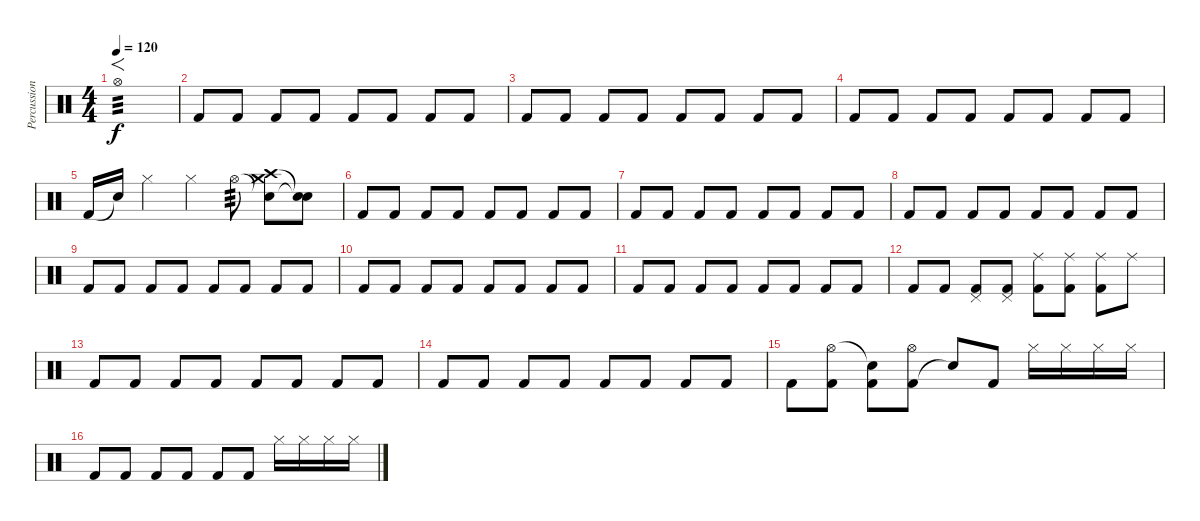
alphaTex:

\track ("Percussioni" "Percussion") {instrument percussion}
\staff {score}
\articulation defaults
\ts (4 4)
\tempo 120
\clef neutral
\ks c "Hi-Hat (open)".1{f tp 3 dy f}
|
"Kick (hit) 2".8 "Kick (hit) 2".8 "Kick (hit) 2".8 "Kick (hit) 2".8 "Kick (hit) 2".8 "Kick (hit) 2".8 "Kick (hit) 2".8 "Kick (hit) 2".8 |
"Kick (hit) 2".8 "Kick (hit) 2".8 "Kick (hit) 2".8 "Kick (hit) 2".8 "Kick (hit) 2".8 "Kick (hit) 2".8 "Kick (hit) 2".8 "Kick (hit) 2".8 |
"Kick (hit) 2".8 "Kick (hit) 2".8 "Kick (hit) 2".8 "Kick (hit) 2".8 "Kick (hit) 2".8 "Kick (hit) 2".8 "Kick (hit) 2".8 "Kick (hit) 2".8 |
"Kick (hit) 2".16 "Snare (hit)"{t}.16 "Hi-Hat (closed)".4 "Hi-Hat (closed)".4 "Hi-Hat (open)".8{tp 3} ("Snare (hit)"{t} "Crash high (hit)" "Crash medium (hit)").8 ("Snare (hit)"{t} "Snare (hit)"{t}).8 |
"Kick (hit) 2".8 "Kick (hit) 2".8 "Kick (hit) 2".8 "Kick (hit) 2".8 "Kick (hit) 2".8 "Kick (hit) 2".8 "Kick (hit) 2".8 "Kick (hit) 2".8 |
"Kick (hit) 2".8 "Kick (hit) 2".8 "Kick (hit) 2".8 "Kick (hit) 2".8 "Kick (hit) 2".8 "Kick (hit) 2".8 "Kick (hit) 2".8 "Kick (hit) 2".8 |
"Kick (hit) 2".8 "Kick (hit) 2".8 "Kick (hit) 2".8 "Kick (hit) 2".8 "Kick (hit) 2".8 "Kick (hit) 2".8 "Kick (hit) 2".8 "Kick (hit) 2".8 |
"Kick (hit) 2".8 "Kick (hit) 2".8 "Kick (hit) 2".8 "Kick (hit) 2".8 "Kick (hit) 2".8 "Kick (hit) 2".8 "Kick (hit) 2".8 "Kick (hit) 2".8 |
"Kick (hit) 2".8 "Kick (hit) 2".8 "Kick (hit) 2".8 "Kick (hit) 2".8 "Kick (hit) 2".8 "Kick (hit) 2".8 "Kick (hit) 2".8 "Kick (hit) 2".8 |
"Kick (hit) 2".8 "Kick (hit) 2".8 "Kick (hit) 2".8 "Kick (hit) 2".8 "Kick (hit) 2".8 "Kick (hit) 2".8 "Kick (hit) 2".8 "Kick (hit) 2".8 |
"Kick (hit) 2".8 "Kick (hit) 2".8 ("Kick (hit) 2" "Pedal Hi-Hat (hit)").8 ("Kick (hit) 2" "Pedal Hi-Hat (hit)").8 ("Kick (hit) 2" "Ride (middle)").8 ("Kick (hit) 2" "Ride (middle)").8 ("Kick (hit) 2" "Ride (middle)").8 "Ride (middle)".8 |
"Kick (hit) 2".8 "Kick (hit) 2".8 "Kick (hit) 2".8 "Kick (hit) 2".8 "Kick (hit) 2".8 "Kick (hit) 2".8 "Kick (hit) 2".8 "Kick (hit) 2".8 |
"Kick (hit) 2".8 "Kick (hit) 2".8 "Kick (hit) 2".8 "Kick (hit) 2".8 "Kick (hit) 2".8 "Kick (hit) 2".8 "Kick (hit) 2".8 "Kick (hit) 2".8 |
"Kick (hit) 2".8 ("Kick (hit) 2" "Hi-Hat (open)").8 ("Kick (hit) 2" "Snare (hit)"{t}).8 ("Kick (hit) 2" "Hi-Hat (open)").8 "Snare (hit)"{t}.8 "Kick (hit) 2".8 "Hi-Hat (closed)".16 "Hi-Hat (closed)".16 "Hi-Hat (closed)".16 "Hi-Hat (closed)".16 |
"Kick (hit) 2".8 "Kick (hit) 2".8 "Kick (hit) 2".8 "Kick (hit) 2".8 "Kick (hit) 2".8 "Kick (hit) 2".8 "Hi-Hat (closed)".16 "Hi-Hat (closed)".16 "Hi-Hat (closed)".16 "Hi-Hat (closed)".16
